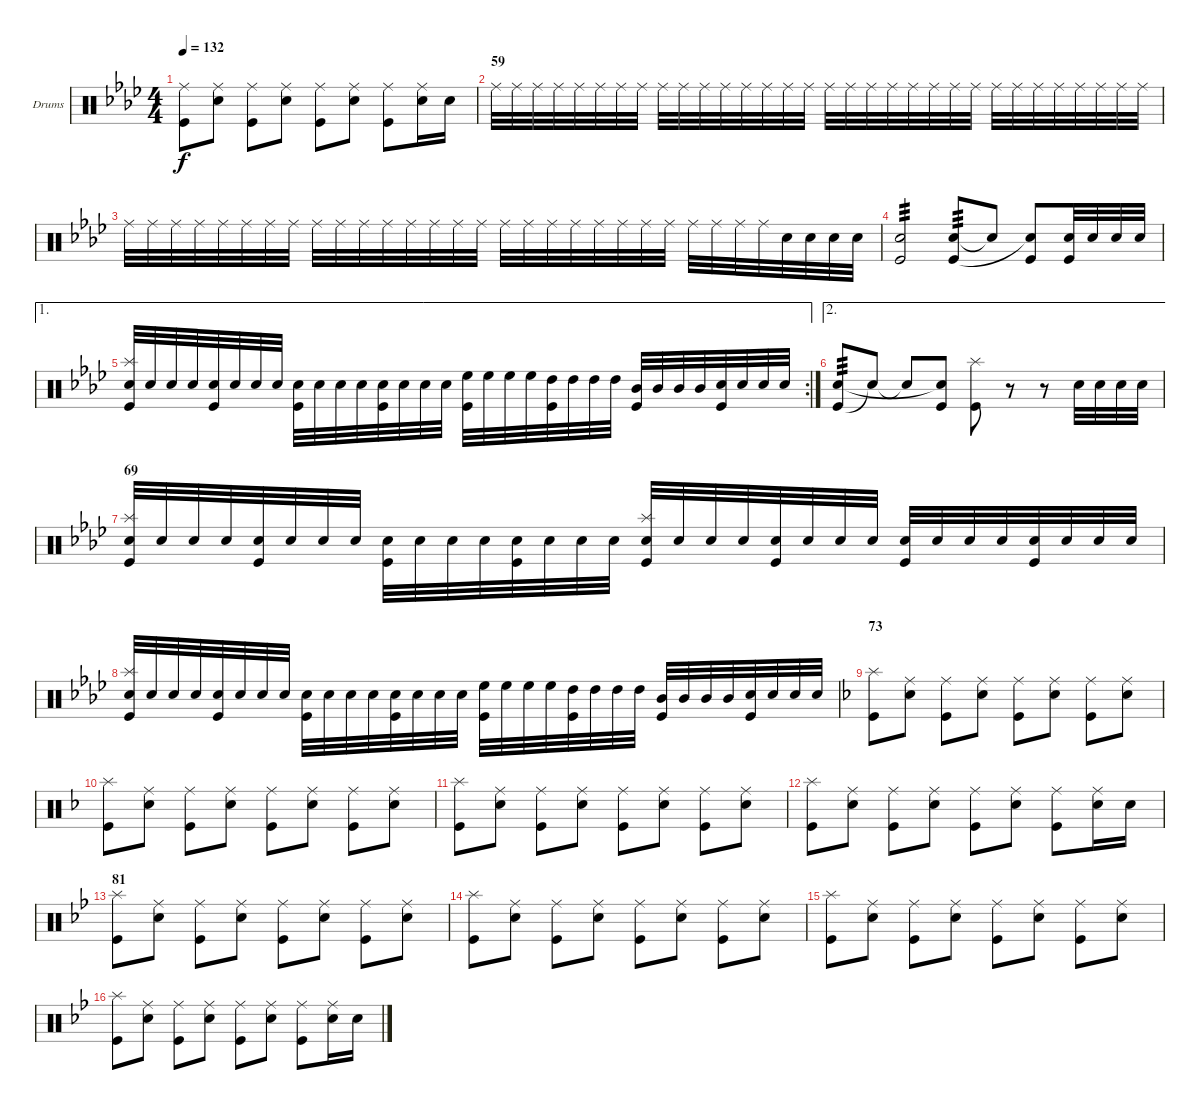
\bracketExtendMode groupsimilarinstruments
\firstSystemTrackNameOrientation horizontal
\otherSystemsTrackNameOrientation horizontal
\track ("Drumkit" "Drums") {instrument percussion}
\staff {score}
\articulation defaults
\ts (4 4)
\tempo 132
\clef neutral
\ks ab
("Kick (hit)" "Ride (middle)").8{dy f} ("Snare (hit) 2" "Ride (middle)").8 ("Kick (hit)" "Ride (middle)").8 ("Snare (hit) 2" "Ride (middle)").8 ("Kick (hit)" "Ride (middle)").8 ("Snare (hit) 2" "Ride (middle)").8 ("Kick (hit)" "Ride (middle)").8 ("Snare (hit) 2" "Ride (middle)").16 "Snare (hit) 2".16 |
\section ("" "59")
"Ride (middle)".32 "Ride (middle)".32 "Ride (middle)".32 "Ride (middle)".32 "Ride (middle)".32 "Ride (middle)".32 "Ride (middle)".32 "Ride (middle)".32 "Ride (middle)".32 "Ride (middle)".32 "Ride (middle)".32 "Ride (middle)".32 "Ride (middle)".32 "Ride (middle)".32 "Ride (middle)".32 "Ride (middle)".32 "Ride (middle)".32 "Ride (middle)".32 "Ride (middle)".32 "Ride (middle)".32 "Ride (middle)".32 "Ride (middle)".32 "Ride (middle)".32 "Ride (middle)".32 "Ride (middle)".32 "Ride (middle)".32 "Ride (middle)".32 "Ride (middle)".32 "Ride (middle)".32 "Ride (middle)".32 "Ride (middle)".32 "Ride (middle)".32 |
"Ride (middle)".32 "Ride (middle)".32 "Ride (middle)".32 "Ride (middle)".32 "Ride (middle)".32 "Ride (middle)".32 "Ride (middle)".32 "Ride (middle)".32 "Ride (middle)".32 "Ride (middle)".32 "Ride (middle)".32 "Ride (middle)".32 "Ride (middle)".32 "Ride (middle)".32 "Ride (middle)".32 "Ride (middle)".32 "Ride (middle)".32 "Ride (middle)".32 "Ride (middle)".32 "Ride (middle)".32 "Ride (middle)".32 "Ride (middle)".32 "Ride (middle)".32 "Ride (middle)".32 "Ride (middle)".32 "Ride (middle)".32 "Ride (middle)".32 "Ride (middle)".32 "Snare (hit) 2".32 "Snare (hit) 2".32 "Snare (hit) 2".32 "Snare (hit) 2".32 |
("Snare (hit) 2" "Kick (hit)").2{tp 3} ("Snare (hit) 2" "Kick (hit)").8{tp 3} "Snare (hit) 2"{t}.8 ("Kick (hit)" "Snare (hit) 2"{t}).8 ("Kick (hit)" "Snare (hit) 2").32 "Snare (hit) 2".32 "Snare (hit) 2".32 "Snare (hit) 2".32 |
\ae 1
\rc 2
("Kick (hit)" "Snare (hit) 2" "Splash (hit)").32{beam invert} "Snare (hit) 2".32 "Snare (hit) 2".32 "Snare (hit) 2".32 ("Kick (hit)" "Snare (hit) 2").32 "Snare (hit) 2".32 "Snare (hit) 2".32 "Snare (hit) 2".32 ("Kick (hit)" "Snare (hit) 2").32 "Snare (hit) 2".32 "Snare (hit) 2".32 "Snare (hit) 2".32 ("Kick (hit)" "Snare (hit) 2").32 "Snare (hit) 2".32 "Snare (hit) 2".32 "Snare (hit) 2".32 ("Kick (hit)" "High Floor Tom (hit)").32{beam invert} "High Floor Tom (hit)".32 "High Floor Tom (hit)".32 "High Floor Tom (hit)".32 ("Kick (hit)" "High Tom (hit)").32 "High Tom (hit)".32 "High Tom (hit)".32 "High Tom (hit)".32 ("Kick (hit)" "Mid Tom (hit)").32 "Mid Tom (hit)".32 "Mid Tom (hit)".32 "Mid Tom (hit)".32 ("Kick (hit)" "Snare (hit) 2").32 "Snare (hit) 2".32 "Snare (hit) 2".32 "Snare (hit) 2".32 |
\ae 2
("Kick (hit)" "Snare (hit) 2").8{tp 3} "Snare (hit) 2"{t}.8 "Snare (hit) 2"{t}.8 ("Kick (hit)" "Snare (hit) 2"{t}).8 ("Kick (hit)" "Splash (hit)").8 r.8 r.8 "Snare (hit) 2".32 "Snare (hit) 2".32 "Snare (hit) 2".32 "Snare (hit) 2".32 |
\section ("" "69")
("Kick (hit)" "Snare (hit) 2" "Splash (hit)").32{beam invert} "Snare (hit) 2".32 "Snare (hit) 2".32 "Snare (hit) 2".32 ("Kick (hit)" "Snare (hit) 2").32 "Snare (hit) 2".32 "Snare (hit) 2".32 "Snare (hit) 2".32 ("Kick (hit)" "Snare (hit) 2").32 "Snare (hit) 2".32 "Snare (hit) 2".32 "Snare (hit) 2".32 ("Kick (hit)" "Snare (hit) 2").32 "Snare (hit) 2".32 "Snare (hit) 2".32 "Snare (hit) 2".32 ("Kick (hit)" "Snare (hit) 2" "Splash (hit)").32{beam invert} "Snare (hit) 2".32 "Snare (hit) 2".32 "Snare (hit) 2".32 ("Kick (hit)" "Snare (hit) 2").32 "Snare (hit) 2".32 "Snare (hit) 2".32 "Snare (hit) 2".32 ("Kick (hit)" "Snare (hit) 2").32 "Snare (hit) 2".32 "Snare (hit) 2".32 "Snare (hit) 2".32 ("Kick (hit)" "Snare (hit) 2").32 "Snare (hit) 2".32 "Snare (hit) 2".32 "Snare (hit) 2".32 |
("Kick (hit)" "Snare (hit) 2" "Splash (hit)").32{beam invert} "Snare (hit) 2".32 "Snare (hit) 2".32 "Snare (hit) 2".32 ("Kick (hit)" "Snare (hit) 2").32 "Snare (hit) 2".32 "Snare (hit) 2".32 "Snare (hit) 2".32 ("Kick (hit)" "Snare (hit) 2").32 "Snare (hit) 2".32 "Snare (hit) 2".32 "Snare (hit) 2".32 ("Kick (hit)" "Snare (hit) 2").32 "Snare (hit) 2".32 "Snare (hit) 2".32 "Snare (hit) 2".32 ("Kick (hit)" "High Floor Tom (hit)").32{beam invert} "High Floor Tom (hit)".32 "High Floor Tom (hit)".32 "High Floor Tom (hit)".32 ("Kick (hit)" "High Tom (hit)").32 "High Tom (hit)".32 "High Tom (hit)".32 "High Tom (hit)".32 ("Kick (hit)" "Mid Tom (hit)").32 "Mid Tom (hit)".32 "Mid Tom (hit)".32 "Mid Tom (hit)".32 ("Kick (hit)" "Snare (hit) 2").32 "Snare (hit) 2".32 "Snare (hit) 2".32 "Snare (hit) 2".32 |
\section ("" "73")
\ks f
("Kick (hit)" "Splash (hit)").8 ("Snare (hit) 2" "Ride (middle)").8 ("Kick (hit)" "Ride (middle)").8 ("Snare (hit) 2" "Ride (middle)").8 ("Kick (hit)" "Ride (middle)").8 ("Snare (hit) 2" "Ride (middle)").8 ("Kick (hit)" "Ride (middle)").8 ("Snare (hit) 2" "Ride (middle)").8 |
("Kick (hit)" "Splash (hit)").8 ("Snare (hit) 2" "Ride (middle)").8 ("Kick (hit)" "Ride (middle)").8 ("Snare (hit) 2" "Ride (middle)").8 ("Kick (hit)" "Ride (middle)").8 ("Snare (hit) 2" "Ride (middle)").8 ("Kick (hit)" "Ride (middle)").8 ("Snare (hit) 2" "Ride (middle)").8 |
("Kick (hit)" "Splash (hit)").8 ("Snare (hit) 2" "Ride (middle)").8 ("Kick (hit)" "Ride (middle)").8 ("Snare (hit) 2" "Ride (middle)").8 ("Kick (hit)" "Ride (middle)").8 ("Snare (hit) 2" "Ride (middle)").8 ("Kick (hit)" "Ride (middle)").8 ("Snare (hit) 2" "Ride (middle)").8 |
("Kick (hit)" "Splash (hit)").8 ("Snare (hit) 2" "Ride (middle)").8 ("Kick (hit)" "Ride (middle)").8 ("Snare (hit) 2" "Ride (middle)").8 ("Kick (hit)" "Ride (middle)").8 ("Snare (hit) 2" "Ride (middle)").8 ("Kick (hit)" "Ride (middle)").8 ("Snare (hit) 2" "Ride (middle)").16 "Snare (hit) 2".16 |
\section ("" "81")
\ks bb
("Kick (hit)" "Splash (hit)").8 ("Snare (hit) 2" "Ride (middle)").8 ("Kick (hit)" "Ride (middle)").8 ("Snare (hit) 2" "Ride (middle)").8 ("Kick (hit)" "Ride (middle)").8 ("Snare (hit) 2" "Ride (middle)").8 ("Kick (hit)" "Ride (middle)").8 ("Snare (hit) 2" "Ride (middle)").8 |
("Kick (hit)" "Splash (hit)").8 ("Snare (hit) 2" "Ride (middle)").8 ("Kick (hit)" "Ride (middle)").8 ("Snare (hit) 2" "Ride (middle)").8 ("Kick (hit)" "Ride (middle)").8 ("Snare (hit) 2" "Ride (middle)").8 ("Kick (hit)" "Ride (middle)").8 ("Snare (hit) 2" "Ride (middle)").8 |
("Kick (hit)" "Splash (hit)").8 ("Snare (hit) 2" "Ride (middle)").8 ("Kick (hit)" "Ride (middle)").8 ("Snare (hit) 2" "Ride (middle)").8 ("Kick (hit)" "Ride (middle)").8 ("Snare (hit) 2" "Ride (middle)").8 ("Kick (hit)" "Ride (middle)").8 ("Snare (hit) 2" "Ride (middle)").8 |
("Kick (hit)" "Splash (hit)").8 ("Snare (hit) 2" "Ride (middle)").8 ("Kick (hit)" "Ride (middle)").8 ("Snare (hit) 2" "Ride (middle)").8 ("Kick (hit)" "Ride (middle)").8 ("Snare (hit) 2" "Ride (middle)").8 ("Kick (hit)" "Ride (middle)").8 ("Snare (hit) 2" "Ride (middle)").16 "Snare (hit) 2".16
